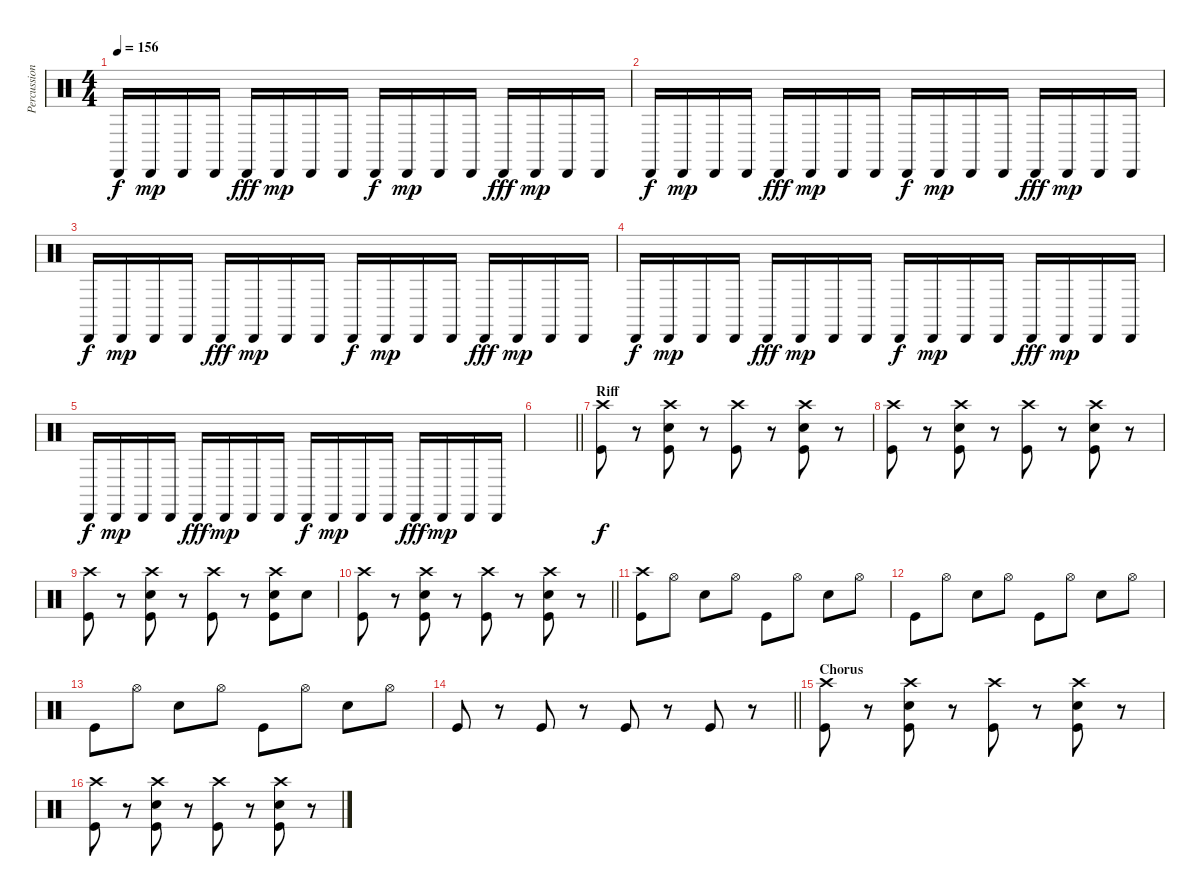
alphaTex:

\track ("Percussion" "Percussion") {instrument percussion}
\staff {score}
\articulation defaults
\ts (4 4)
\tempo 156
\clef neutral
\ks c "Cabasa (hit)".16{dy f} "Cabasa (hit)".16{dy mp} "Cabasa (hit)".16 "Cabasa (hit)".16 "Cabasa (hit)".16{dy fff} "Cabasa (hit)".16{dy mp} "Cabasa (hit)".16 "Cabasa (hit)".16 "Cabasa (hit)".16{dy f} "Cabasa (hit)".16{dy mp} "Cabasa (hit)".16 "Cabasa (hit)".16 "Cabasa (hit)".16{dy fff} "Cabasa (hit)".16{dy mp} "Cabasa (hit)".16 "Cabasa (hit)".16
|
"Cabasa (hit)".16{dy f} "Cabasa (hit)".16{dy mp} "Cabasa (hit)".16 "Cabasa (hit)".16 "Cabasa (hit)".16{dy fff} "Cabasa (hit)".16{dy mp} "Cabasa (hit)".16 "Cabasa (hit)".16 "Cabasa (hit)".16{dy f} "Cabasa (hit)".16{dy mp} "Cabasa (hit)".16 "Cabasa (hit)".16 "Cabasa (hit)".16{dy fff} "Cabasa (hit)".16{dy mp} "Cabasa (hit)".16 "Cabasa (hit)".16 |
"Cabasa (hit)".16{dy f} "Cabasa (hit)".16{dy mp} "Cabasa (hit)".16 "Cabasa (hit)".16 "Cabasa (hit)".16{dy fff} "Cabasa (hit)".16{dy mp} "Cabasa (hit)".16 "Cabasa (hit)".16 "Cabasa (hit)".16{dy f} "Cabasa (hit)".16{dy mp} "Cabasa (hit)".16 "Cabasa (hit)".16 "Cabasa (hit)".16{dy fff} "Cabasa (hit)".16{dy mp} "Cabasa (hit)".16 "Cabasa (hit)".16 |
"Cabasa (hit)".16{dy f} "Cabasa (hit)".16{dy mp} "Cabasa (hit)".16 "Cabasa (hit)".16 "Cabasa (hit)".16{dy fff} "Cabasa (hit)".16{dy mp} "Cabasa (hit)".16 "Cabasa (hit)".16 "Cabasa (hit)".16{dy f} "Cabasa (hit)".16{dy mp} "Cabasa (hit)".16 "Cabasa (hit)".16 "Cabasa (hit)".16{dy fff} "Cabasa (hit)".16{dy mp} "Cabasa (hit)".16 "Cabasa (hit)".16 |
"Cabasa (hit)".16{dy f} "Cabasa (hit)".16{dy mp} "Cabasa (hit)".16 "Cabasa (hit)".16 "Cabasa (hit)".16{dy fff} "Cabasa (hit)".16{dy mp} "Cabasa (hit)".16 "Cabasa (hit)".16 "Cabasa (hit)".16{dy f} "Cabasa (hit)".16{dy mp} "Cabasa (hit)".16 "Cabasa (hit)".16 "Cabasa (hit)".16{dy fff} "Cabasa (hit)".16{dy mp} "Cabasa (hit)".16 "Cabasa (hit)".16 |
\barLineRight lightlight
|
\section ("" "Riff")
("Crash high (hit)" "Kick (hit)").8{dy f} r.8 ("Crash high (hit)" "Snare (hit) 2" "Kick (hit)").8 r.8 ("Crash high (hit)" "Kick (hit)").8 r.8 ("Crash high (hit)" "Snare (hit) 2" "Kick (hit)").8 r.8 |
("Crash high (hit)" "Kick (hit)").8 r.8 ("Crash high (hit)" "Snare (hit) 2" "Kick (hit)").8 r.8 ("Crash high (hit)" "Kick (hit)").8 r.8 ("Crash high (hit)" "Snare (hit) 2" "Kick (hit)").8 r.8 |
("Crash high (hit)" "Kick (hit)").8 r.8 ("Crash high (hit)" "Snare (hit) 2" "Kick (hit)").8 r.8 ("Crash high (hit)" "Kick (hit)").8 r.8 ("Crash high (hit)" "Snare (hit) 2" "Kick (hit)").8 "Snare (hit) 2".8 |
\barLineRight lightlight
("Crash high (hit)" "Kick (hit)").8 r.8 ("Crash high (hit)" "Snare (hit) 2" "Kick (hit)").8 r.8 ("Crash high (hit)" "Kick (hit)").8 r.8 ("Crash high (hit)" "Snare (hit) 2" "Kick (hit)").8 r.8 |
("Crash high (hit)" "Kick (hit)").8 "Hi-Hat (open)".8 "Snare (hit) 2".8 "Hi-Hat (open)".8 "Kick (hit)".8 "Hi-Hat (open)".8 "Snare (hit) 2".8 "Hi-Hat (open)".8 |
"Kick (hit)".8 "Hi-Hat (open)".8 "Snare (hit) 2".8 "Hi-Hat (open)".8 "Kick (hit)".8 "Hi-Hat (open)".8 "Snare (hit) 2".8 "Hi-Hat (open)".8 |
"Kick (hit)".8 "Hi-Hat (open)".8 "Snare (hit) 2".8 "Hi-Hat (open)".8 "Kick (hit)".8 "Hi-Hat (open)".8 "Snare (hit) 2".8 "Hi-Hat (open)".8 |
\barLineRight lightlight "Kick (hit)".8
r.8 "Kick (hit)".8 r.8 "Kick (hit)".8 r.8 "Kick (hit)".8 r.8 |
\section ("" "Chorus")
("Crash high (hit)" "Kick (hit)").8 r.8 ("Crash high (hit)" "Snare (hit) 2" "Kick (hit)").8 r.8 ("Crash high (hit)" "Kick (hit)").8 r.8 ("Crash high (hit)" "Snare (hit) 2" "Kick (hit)").8 r.8 |
("Crash high (hit)" "Kick (hit)").8 r.8 ("Crash high (hit)" "Snare (hit) 2" "Kick (hit)").8 r.8 ("Crash high (hit)" "Kick (hit)").8 r.8 ("Crash high (hit)" "Snare (hit) 2" "Kick (hit)").8 r.8
